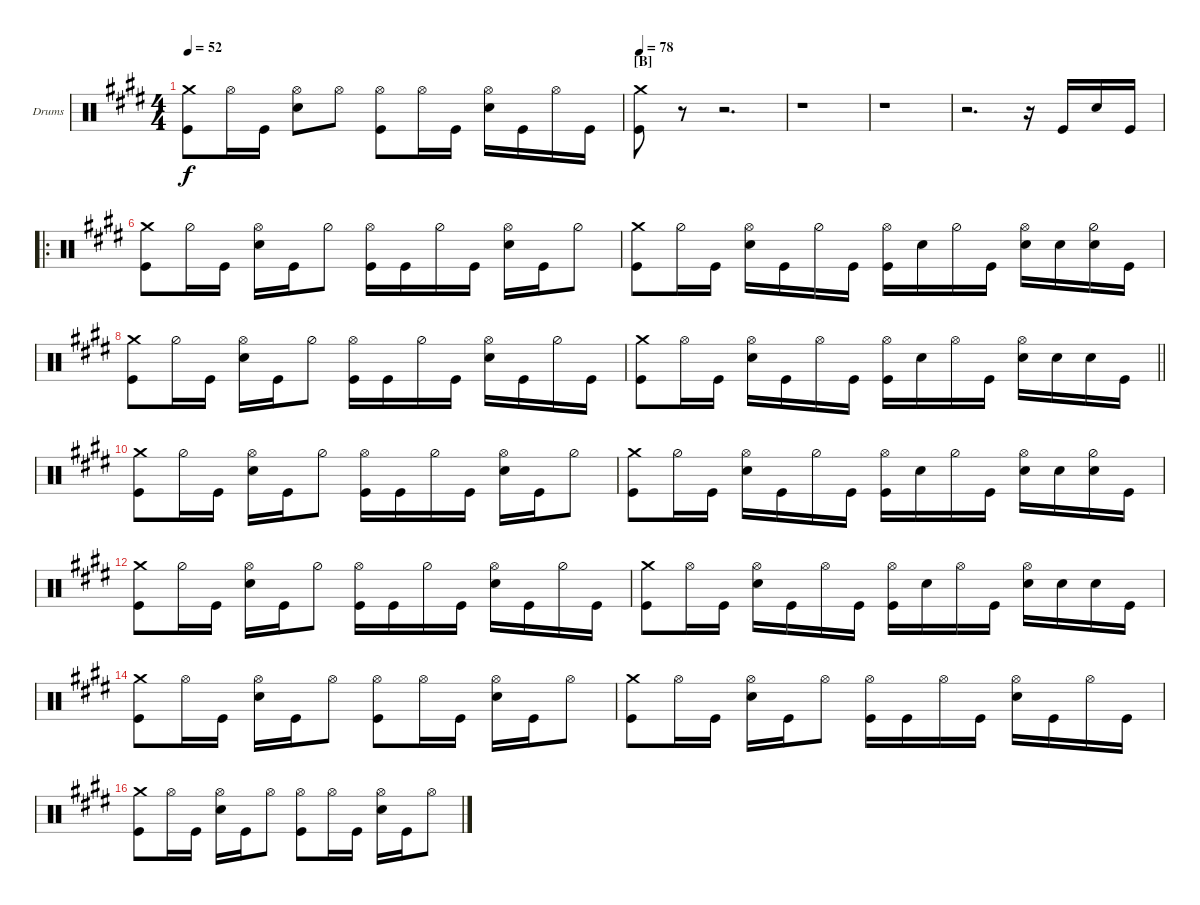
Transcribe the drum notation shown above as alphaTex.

\bracketExtendMode nobrackets
\firstSystemTrackNameOrientation horizontal
\otherSystemsTrackNameOrientation horizontal
\defaultBarNumberDisplay FirstOfSystem
\track ("Drumkit" "Drums") {instrument percussion}
\staff {score}
\articulation defaults
\ts (4 4)
\tempo 52
\clef neutral
\ks c#minor
("Crash medium (hit)" "Kick (hit)").8{dy f} "Hi-Hat (open)".16 "Kick (hit)".16 ("Hi-Hat (open)" "Snare (hit) 2").8 "Hi-Hat (open)".8 ("Hi-Hat (open)" "Kick (hit)").8 "Hi-Hat (open)".16 "Kick (hit)".16 ("Hi-Hat (open)" "Snare (hit) 2").16 "Kick (hit)".16 "Hi-Hat (open)".16 "Kick (hit)".16 |
\section ("B" "")
\tempo 78
("Crash medium (hit)" "Kick (hit)").8 r.8 r.2{d} |
r.1 |
r.1 |
r.2{d} r.16 "Kick (hit)".16 "Snare (hit) 2".16 "Kick (hit)".16 |
\ro
("Crash medium (hit)" "Kick (hit)").8 "Hi-Hat (half)".16 "Kick (hit)".16 ("Hi-Hat (open)" "Snare (hit) 2").16 "Kick (hit)".16 "Hi-Hat (half)".8 ("Hi-Hat (open)" "Kick (hit)").16 "Kick (hit)".16 "Hi-Hat (half)".16 "Kick (hit)".16 ("Hi-Hat (open)" "Snare (hit) 2").16 "Kick (hit)".16 "Hi-Hat (half)".8 |
("Crash medium (hit)" "Kick (hit)").8 "Hi-Hat (half)".16 "Kick (hit)".16 ("Hi-Hat (open)" "Snare (hit) 2").16 "Kick (hit)".16 "Hi-Hat (half)".16 "Kick (hit)".16 ("Hi-Hat (open)" "Kick (hit)").16 "Snare (hit) 2".16 "Hi-Hat (half)".16 "Kick (hit)".16 ("Hi-Hat (open)" "Snare (hit) 2").16 "Snare (hit) 2".16 ("Hi-Hat (half)" "Snare (hit) 2").16 "Kick (hit)".16 |
("Crash medium (hit)" "Kick (hit)").8 "Hi-Hat (half)".16 "Kick (hit)".16 ("Hi-Hat (open)" "Snare (hit) 2").16 "Kick (hit)".16 "Hi-Hat (half)".8 ("Hi-Hat (open)" "Kick (hit)").16 "Kick (hit)".16 "Hi-Hat (half)".16 "Kick (hit)".16 ("Hi-Hat (open)" "Snare (hit) 2").16 "Kick (hit)".16 "Hi-Hat (half)".16 "Kick (hit)".16 |
\barLineRight lightlight
("Crash medium (hit)" "Kick (hit)").8 "Hi-Hat (open)".16 "Kick (hit)".16 ("Hi-Hat (open)" "Snare (hit) 2").16 "Kick (hit)".16 "Hi-Hat (open)".16 "Kick (hit)".16 ("Hi-Hat (open)" "Kick (hit)").16 "Snare (hit) 2".16 "Hi-Hat (open)".16 "Kick (hit)".16 ("Hi-Hat (open)" "Snare (hit) 2").16 "Snare (hit) 2".16 "Snare (hit) 2".16 "Kick (hit)".16 |
("Crash medium (hit)" "Kick (hit)").8 "Hi-Hat (half)".16 "Kick (hit)".16 ("Hi-Hat (open)" "Snare (hit) 2").16 "Kick (hit)".16 "Hi-Hat (half)".8 ("Hi-Hat (open)" "Kick (hit)").16 "Kick (hit)".16 "Hi-Hat (half)".16 "Kick (hit)".16 ("Hi-Hat (open)" "Snare (hit) 2").16 "Kick (hit)".16 "Hi-Hat (half)".8 |
("Crash medium (hit)" "Kick (hit)").8 "Hi-Hat (half)".16 "Kick (hit)".16 ("Hi-Hat (open)" "Snare (hit) 2").16 "Kick (hit)".16 "Hi-Hat (half)".16 "Kick (hit)".16 ("Hi-Hat (open)" "Kick (hit)").16 "Snare (hit) 2".16 "Hi-Hat (half)".16 "Kick (hit)".16 ("Hi-Hat (open)" "Snare (hit) 2").16 "Snare (hit) 2".16 ("Hi-Hat (half)" "Snare (hit) 2").16 "Kick (hit)".16 |
("Crash medium (hit)" "Kick (hit)").8 "Hi-Hat (half)".16 "Kick (hit)".16 ("Hi-Hat (open)" "Snare (hit) 2").16 "Kick (hit)".16 "Hi-Hat (half)".8 ("Hi-Hat (open)" "Kick (hit)").16 "Kick (hit)".16 "Hi-Hat (half)".16 "Kick (hit)".16 ("Hi-Hat (open)" "Snare (hit) 2").16 "Kick (hit)".16 "Hi-Hat (half)".16 "Kick (hit)".16 |
("Crash medium (hit)" "Kick (hit)").8 "Hi-Hat (open)".16 "Kick (hit)".16 ("Hi-Hat (open)" "Snare (hit) 2").16 "Kick (hit)".16 "Hi-Hat (open)".16 "Kick (hit)".16 ("Hi-Hat (open)" "Kick (hit)").16 "Snare (hit) 2".16 "Hi-Hat (open)".16 "Kick (hit)".16 ("Hi-Hat (open)" "Snare (hit) 2").16 "Snare (hit) 2".16 "Snare (hit) 2".16 "Kick (hit)".16 |
("Crash medium (hit)" "Kick (hit)").8 "Hi-Hat (open)".16 "Kick (hit)".16 ("Hi-Hat (open)" "Snare (hit) 2").16 "Kick (hit)".16 "Hi-Hat (open)".8 ("Hi-Hat (open)" "Kick (hit)").8 "Hi-Hat (open)".16 "Kick (hit)".16 ("Hi-Hat (open)" "Snare (hit) 2").16 "Kick (hit)".16 "Hi-Hat (open)".8 |
("Crash medium (hit)" "Kick (hit)").8 "Hi-Hat (open)".16 "Kick (hit)".16 ("Hi-Hat (open)" "Snare (hit) 2").16 "Kick (hit)".16 "Hi-Hat (open)".8 ("Hi-Hat (open)" "Kick (hit)").16 "Kick (hit)".16 "Hi-Hat (open)".16 "Kick (hit)".16 ("Hi-Hat (open)" "Snare (hit) 2").16 "Kick (hit)".16 "Hi-Hat (open)".16 "Kick (hit)".16 |
("Crash medium (hit)" "Kick (hit)").8 "Hi-Hat (open)".16 "Kick (hit)".16 ("Hi-Hat (open)" "Snare (hit) 2").16 "Kick (hit)".16 "Hi-Hat (open)".8 ("Hi-Hat (open)" "Kick (hit)").8 "Hi-Hat (open)".16 "Kick (hit)".16 ("Hi-Hat (open)" "Snare (hit) 2").16 "Kick (hit)".16 "Hi-Hat (open)".8
